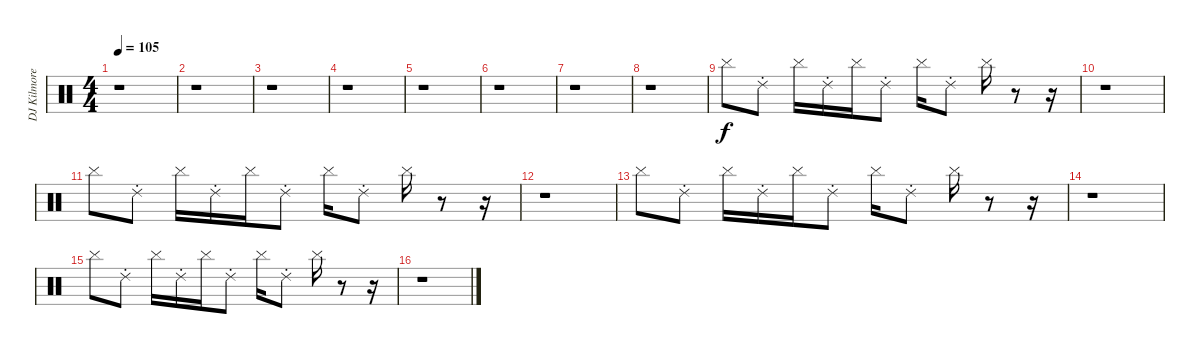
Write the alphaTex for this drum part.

\track ("DJ Kilmore" "DJ Kilmore") {instrument percussion}
\staff {score}
\articulation defaults
\ts (4 4)
\tempo 105
\clef neutral
\ks c
r.1{dy f} |
r.1 |
r.1 |
r.1 |
r.1 |
r.1 |
r.1 |
r.1 |
"Cymbal (hit)".8 "Ride (choke) 2".8 "Cymbal (hit)".16 "Ride (choke) 2".16 "Cymbal (hit)".16 "Ride (choke) 2".8 "Cymbal (hit)".16 "Ride (choke) 2".8 "Cymbal (hit)".16 r.8 r.16 |
r.1 |
"Cymbal (hit)".8 "Ride (choke) 2".8 "Cymbal (hit)".16 "Ride (choke) 2".16 "Cymbal (hit)".16 "Ride (choke) 2".8 "Cymbal (hit)".16 "Ride (choke) 2".8 "Cymbal (hit)".16 r.8 r.16 |
r.1 |
"Cymbal (hit)".8 "Ride (choke) 2".8 "Cymbal (hit)".16 "Ride (choke) 2".16 "Cymbal (hit)".16 "Ride (choke) 2".8 "Cymbal (hit)".16 "Ride (choke) 2".8 "Cymbal (hit)".16 r.8 r.16 |
r.1 |
"Cymbal (hit)".8 "Ride (choke) 2".8 "Cymbal (hit)".16 "Ride (choke) 2".16 "Cymbal (hit)".16 "Ride (choke) 2".8 "Cymbal (hit)".16 "Ride (choke) 2".8 "Cymbal (hit)".16 r.8 r.16 |
r.1
